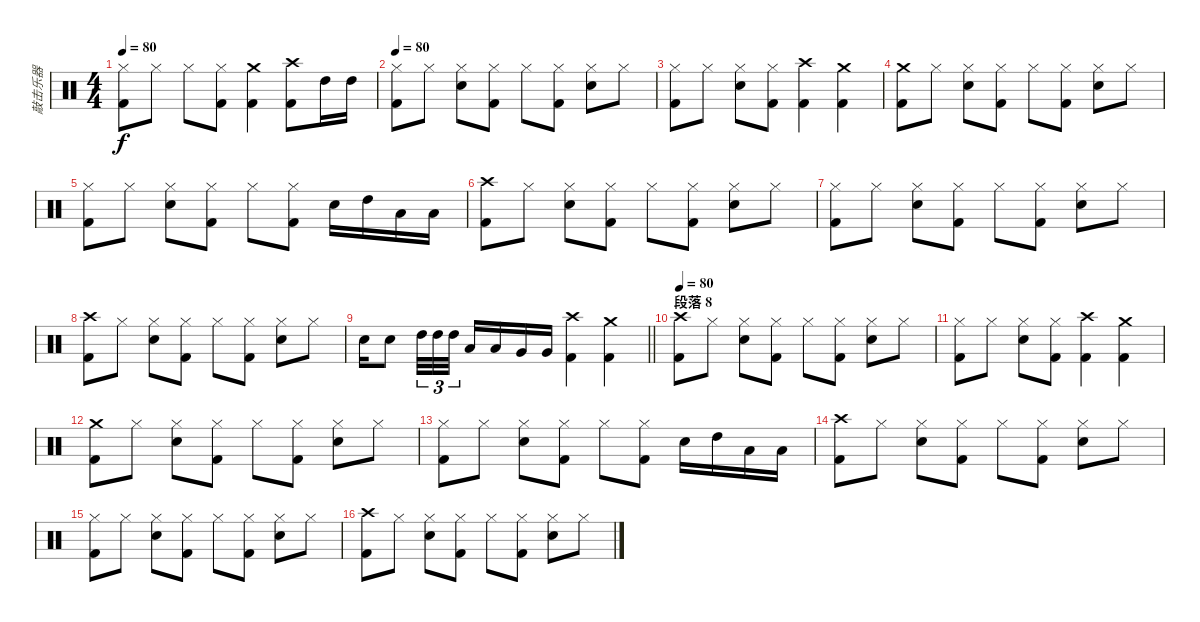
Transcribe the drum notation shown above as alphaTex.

\track ("敲击乐器" "敲击乐器") {instrument percussion}
\staff {score}
\articulation defaults
\ts (4 4)
\tempo 80
\clef neutral
\ks c
("Hi-Hat (closed)" "Kick (hit) 2").8{dy f} "Hi-Hat (closed)".8 "Hi-Hat (closed)".8 ("Hi-Hat (closed)" "Kick (hit) 2").8 ("Crash medium (hit)" "Kick (hit) 2").4 ("Crash high (hit)" "Kick (hit) 2").8 "High Tom (hit)".16 "High Tom (hit)".16 |
\tempo 80
("Hi-Hat (closed)" "Kick (hit) 2").8 "Hi-Hat (closed)".8 ("Hi-Hat (closed)" "Snare (hit) 2").8 ("Hi-Hat (closed)" "Kick (hit) 2").8 "Hi-Hat (closed)".8 ("Hi-Hat (closed)" "Kick (hit) 2").8 ("Hi-Hat (closed)" "Snare (hit) 2").8 "Hi-Hat (closed)".8 |
("Hi-Hat (closed)" "Kick (hit) 2").8 "Hi-Hat (closed)".8 ("Hi-Hat (closed)" "Snare (hit) 2").8 ("Hi-Hat (closed)" "Kick (hit) 2").8 ("Crash high (hit)" "Kick (hit) 2").4 ("Crash medium (hit)" "Kick (hit) 2").4 |
("Crash medium (hit)" "Kick (hit) 2").8 "Hi-Hat (closed)".8 ("Hi-Hat (closed)" "Snare (hit) 2").8 ("Hi-Hat (closed)" "Kick (hit) 2").8 "Hi-Hat (closed)".8 ("Hi-Hat (closed)" "Kick (hit) 2").8 ("Hi-Hat (closed)" "Snare (hit) 2").8 "Hi-Hat (closed)".8 |
("Hi-Hat (closed)" "Kick (hit) 2").8 "Hi-Hat (closed)".8 ("Hi-Hat (closed)" "Snare (hit) 2").8 ("Hi-Hat (closed)" "Kick (hit) 2").8 "Hi-Hat (closed)".8 ("Hi-Hat (closed)" "Kick (hit) 2").8 "Snare (hit) 2".16 "High Tom (hit)".16 "Low Tom (hit)".16 "Low Tom (hit)".16 |
("Crash high (hit)" "Kick (hit) 2").8 "Hi-Hat (closed)".8 ("Hi-Hat (closed)" "Snare (hit) 2").8 ("Hi-Hat (closed)" "Kick (hit) 2").8 "Hi-Hat (closed)".8 ("Hi-Hat (closed)" "Kick (hit) 2").8 ("Hi-Hat (closed)" "Snare (hit) 2").8 "Hi-Hat (closed)".8 |
("Hi-Hat (closed)" "Kick (hit) 2").8 "Hi-Hat (closed)".8 ("Hi-Hat (closed)" "Snare (hit) 2").8 ("Hi-Hat (closed)" "Kick (hit) 2").8 "Hi-Hat (closed)".8 ("Hi-Hat (closed)" "Kick (hit) 2").8 ("Hi-Hat (closed)" "Snare (hit) 2").8 "Hi-Hat (closed)".8 |
("Crash high (hit)" "Kick (hit) 2").8 "Hi-Hat (closed)".8 ("Hi-Hat (closed)" "Snare (hit) 2").8 ("Hi-Hat (closed)" "Kick (hit) 2").8 "Hi-Hat (closed)".8 ("Hi-Hat (closed)" "Kick (hit) 2").8 ("Hi-Hat (closed)" "Snare (hit) 2").8 "Hi-Hat (closed)".8 |
\barLineRight lightlight "Snare (hit) 2".16 "Snare (hit) 2".8 "High Tom (hit)".32{tu (3 2)} "High Tom (hit)".32{tu (3 2)} "High Tom (hit)".32{tu (3 2)} "Low Tom (hit)".16 "Low Tom (hit)".16 "Very Low Tom (hit)".16 "Very Low Tom (hit)".16
("Crash high (hit)" "Kick (hit) 2").4 ("Crash medium (hit)" "Kick (hit) 2").4 |
\section ("" "段落 8")
\tempo 80
("Crash high (hit)" "Kick (hit) 2").8 "Hi-Hat (closed)".8 ("Hi-Hat (closed)" "Snare (hit) 2").8 ("Hi-Hat (closed)" "Kick (hit) 2").8 "Hi-Hat (closed)".8 ("Hi-Hat (closed)" "Kick (hit) 2").8 ("Hi-Hat (closed)" "Snare (hit) 2").8 "Hi-Hat (closed)".8 |
("Hi-Hat (closed)" "Kick (hit) 2").8 "Hi-Hat (closed)".8 ("Hi-Hat (closed)" "Snare (hit) 2").8 ("Hi-Hat (closed)" "Kick (hit) 2").8 ("Crash high (hit)" "Kick (hit) 2").4 ("Crash medium (hit)" "Kick (hit) 2").4 |
("Crash medium (hit)" "Kick (hit) 2").8 "Hi-Hat (closed)".8 ("Hi-Hat (closed)" "Snare (hit) 2").8 ("Hi-Hat (closed)" "Kick (hit) 2").8 "Hi-Hat (closed)".8 ("Hi-Hat (closed)" "Kick (hit) 2").8 ("Hi-Hat (closed)" "Snare (hit) 2").8 "Hi-Hat (closed)".8 |
("Hi-Hat (closed)" "Kick (hit) 2").8 "Hi-Hat (closed)".8 ("Hi-Hat (closed)" "Snare (hit) 2").8 ("Hi-Hat (closed)" "Kick (hit) 2").8 "Hi-Hat (closed)".8 ("Hi-Hat (closed)" "Kick (hit) 2").8 "Snare (hit) 2".16 "High Tom (hit)".16 "Low Tom (hit)".16 "Low Tom (hit)".16 |
("Crash high (hit)" "Kick (hit) 2").8 "Hi-Hat (closed)".8 ("Hi-Hat (closed)" "Snare (hit) 2").8 ("Hi-Hat (closed)" "Kick (hit) 2").8 "Hi-Hat (closed)".8 ("Hi-Hat (closed)" "Kick (hit) 2").8 ("Hi-Hat (closed)" "Snare (hit) 2").8 "Hi-Hat (closed)".8 |
("Hi-Hat (closed)" "Kick (hit) 2").8 "Hi-Hat (closed)".8 ("Hi-Hat (closed)" "Snare (hit) 2").8 ("Hi-Hat (closed)" "Kick (hit) 2").8 "Hi-Hat (closed)".8 ("Hi-Hat (closed)" "Kick (hit) 2").8 ("Hi-Hat (closed)" "Snare (hit) 2").8 "Hi-Hat (closed)".8 |
("Crash high (hit)" "Kick (hit) 2").8 "Hi-Hat (closed)".8 ("Hi-Hat (closed)" "Snare (hit) 2").8 ("Hi-Hat (closed)" "Kick (hit) 2").8 "Hi-Hat (closed)".8 ("Hi-Hat (closed)" "Kick (hit) 2").8 ("Hi-Hat (closed)" "Snare (hit) 2").8 "Hi-Hat (closed)".8
